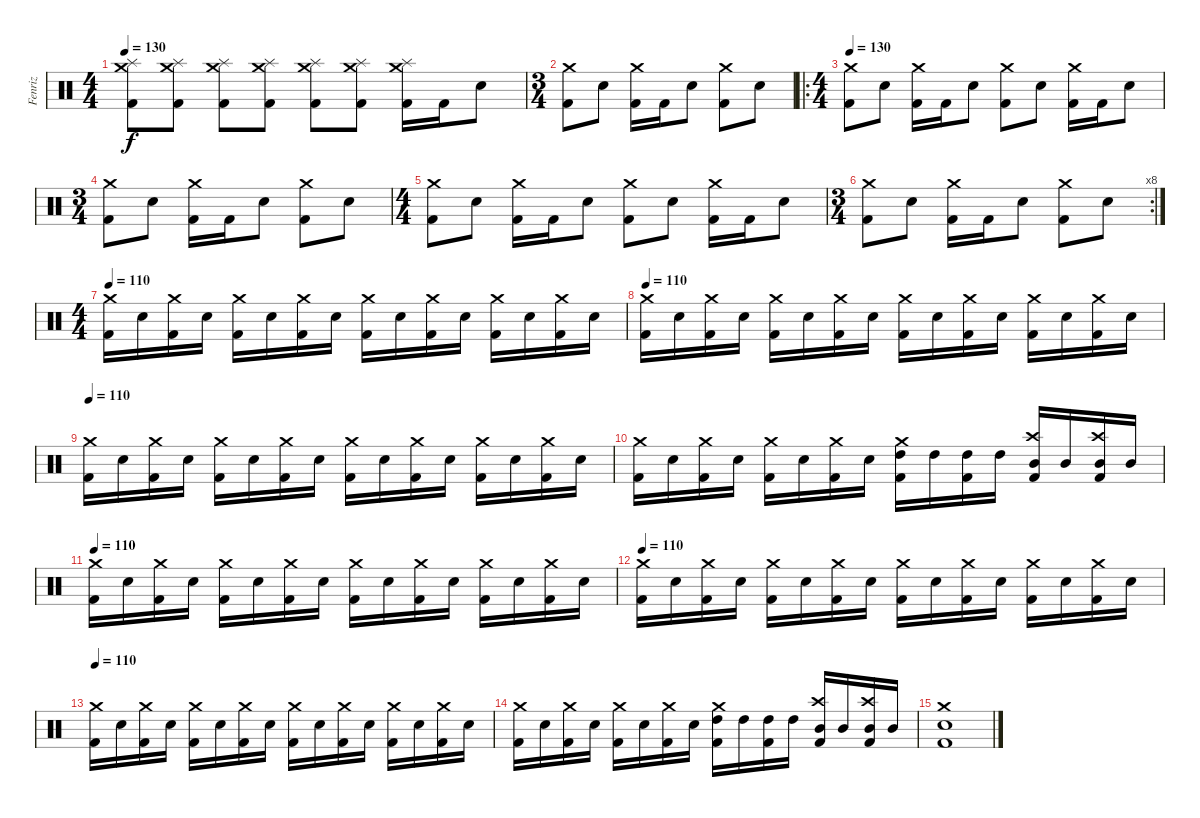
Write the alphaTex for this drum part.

\track ("Fenriz" "Fenriz") {instrument percussion}
\staff {score}
\articulation defaults
\ts (4 4)
\tempo 130
\clef neutral
\ks c
("Crash medium (hit)" "Splash (hit)" "Kick (hit) 2").8{dy f} ("Crash medium (hit)" "Splash (hit)" "Kick (hit) 2").8 ("Crash medium (hit)" "Splash (hit)" "Kick (hit) 2").8 ("Crash medium (hit)" "Splash (hit)" "Kick (hit) 2").8 ("Crash medium (hit)" "Splash (hit)" "Kick (hit) 2").8 ("Crash medium (hit)" "Splash (hit)" "Kick (hit) 2").8 ("Crash medium (hit)" "Splash (hit)" "Kick (hit) 2").16 "Kick (hit) 2".16 "Electric Snare (hit)".8 |
\ts (3 4)
("Crash medium (hit)" "Kick (hit) 2").8 "Electric Snare (hit)".8 ("Crash medium (hit)" "Kick (hit) 2").16 "Kick (hit) 2".16 "Electric Snare (hit)".8 ("Crash medium (hit)" "Kick (hit) 2").8 "Electric Snare (hit)".8 |
\ro
\ts (4 4)
\tempo 130
("Crash medium (hit)" "Kick (hit) 2").8 "Electric Snare (hit)".8 ("Crash medium (hit)" "Kick (hit) 2").16 "Kick (hit) 2".16 "Electric Snare (hit)".8 ("Crash medium (hit)" "Kick (hit) 2").8 "Electric Snare (hit)".8 ("Crash medium (hit)" "Kick (hit) 2").16 "Kick (hit) 2".16 "Electric Snare (hit)".8 |
\ts (3 4)
("Crash medium (hit)" "Kick (hit) 2").8 "Electric Snare (hit)".8 ("Crash medium (hit)" "Kick (hit) 2").16 "Kick (hit) 2".16 "Electric Snare (hit)".8 ("Crash medium (hit)" "Kick (hit) 2").8 "Electric Snare (hit)".8 |
\ts (4 4)
("Crash medium (hit)" "Kick (hit) 2").8 "Electric Snare (hit)".8 ("Crash medium (hit)" "Kick (hit) 2").16 "Kick (hit) 2".16 "Electric Snare (hit)".8 ("Crash medium (hit)" "Kick (hit) 2").8 "Electric Snare (hit)".8 ("Crash medium (hit)" "Kick (hit) 2").16 "Kick (hit) 2".16 "Electric Snare (hit)".8 |
\rc 8
\ts (3 4)
("Crash medium (hit)" "Kick (hit) 2").8 "Electric Snare (hit)".8 ("Crash medium (hit)" "Kick (hit) 2").16 "Kick (hit) 2".16 "Electric Snare (hit)".8 ("Crash medium (hit)" "Kick (hit) 2").8 "Electric Snare (hit)".8 |
\ts (4 4)
\tempo 110
("Crash medium (hit)" "Kick (hit) 2").16{volume 13} "Electric Snare (hit)".16 ("Crash medium (hit)" "Kick (hit) 2").16 "Electric Snare (hit)".16 ("Crash medium (hit)" "Kick (hit) 2").16 "Electric Snare (hit)".16 ("Crash medium (hit)" "Kick (hit) 2").16 "Electric Snare (hit)".16 ("Crash medium (hit)" "Kick (hit) 2").16 "Electric Snare (hit)".16 ("Crash medium (hit)" "Kick (hit) 2").16 "Electric Snare (hit)".16 ("Crash medium (hit)" "Kick (hit) 2").16 "Electric Snare (hit)".16 ("Crash medium (hit)" "Kick (hit) 2").16 "Electric Snare (hit)".16 |
\tempo 110
("Crash medium (hit)" "Kick (hit) 2").16{volume 13} "Electric Snare (hit)".16 ("Crash medium (hit)" "Kick (hit) 2").16 "Electric Snare (hit)".16 ("Crash medium (hit)" "Kick (hit) 2").16 "Electric Snare (hit)".16 ("Crash medium (hit)" "Kick (hit) 2").16 "Electric Snare (hit)".16 ("Crash medium (hit)" "Kick (hit) 2").16 "Electric Snare (hit)".16 ("Crash medium (hit)" "Kick (hit) 2").16 "Electric Snare (hit)".16 ("Crash medium (hit)" "Kick (hit) 2").16 "Electric Snare (hit)".16 ("Crash medium (hit)" "Kick (hit) 2").16 "Electric Snare (hit)".16 |
\tempo 110
("Crash medium (hit)" "Kick (hit) 2").16{volume 13} "Electric Snare (hit)".16 ("Crash medium (hit)" "Kick (hit) 2").16 "Electric Snare (hit)".16 ("Crash medium (hit)" "Kick (hit) 2").16 "Electric Snare (hit)".16 ("Crash medium (hit)" "Kick (hit) 2").16 "Electric Snare (hit)".16 ("Crash medium (hit)" "Kick (hit) 2").16 "Electric Snare (hit)".16 ("Crash medium (hit)" "Kick (hit) 2").16 "Electric Snare (hit)".16 ("Crash medium (hit)" "Kick (hit) 2").16 "Electric Snare (hit)".16 ("Crash medium (hit)" "Kick (hit) 2").16 "Electric Snare (hit)".16 |
("Crash medium (hit)" "Kick (hit) 2").16 "Electric Snare (hit)".16 ("Crash medium (hit)" "Kick (hit) 2").16 "Electric Snare (hit)".16 ("Crash medium (hit)" "Kick (hit) 2").16 "Electric Snare (hit)".16 ("Crash medium (hit)" "Kick (hit) 2").16 "Electric Snare (hit)".16 ("Crash medium (hit)" "High Tom (hit)" "Kick (hit) 2").16 "High Tom (hit)".16 ("High Tom (hit)" "Kick (hit) 2").16 "High Tom (hit)".16 ("Crash high (hit)" "Mid Tom (hit)" "Kick (hit) 2").16 "Mid Tom (hit)".16 ("Crash high (hit)" "Mid Tom (hit)" "Kick (hit) 2").16 "Mid Tom (hit)".16 |
\tempo 110
("Crash medium (hit)" "Kick (hit) 2").16{volume 13} "Electric Snare (hit)".16 ("Crash medium (hit)" "Kick (hit) 2").16 "Electric Snare (hit)".16 ("Crash medium (hit)" "Kick (hit) 2").16 "Electric Snare (hit)".16 ("Crash medium (hit)" "Kick (hit) 2").16 "Electric Snare (hit)".16 ("Crash medium (hit)" "Kick (hit) 2").16 "Electric Snare (hit)".16 ("Crash medium (hit)" "Kick (hit) 2").16 "Electric Snare (hit)".16 ("Crash medium (hit)" "Kick (hit) 2").16 "Electric Snare (hit)".16 ("Crash medium (hit)" "Kick (hit) 2").16 "Electric Snare (hit)".16 |
\tempo 110
("Crash medium (hit)" "Kick (hit) 2").16{volume 13} "Electric Snare (hit)".16 ("Crash medium (hit)" "Kick (hit) 2").16 "Electric Snare (hit)".16 ("Crash medium (hit)" "Kick (hit) 2").16 "Electric Snare (hit)".16 ("Crash medium (hit)" "Kick (hit) 2").16 "Electric Snare (hit)".16 ("Crash medium (hit)" "Kick (hit) 2").16 "Electric Snare (hit)".16 ("Crash medium (hit)" "Kick (hit) 2").16 "Electric Snare (hit)".16 ("Crash medium (hit)" "Kick (hit) 2").16 "Electric Snare (hit)".16 ("Crash medium (hit)" "Kick (hit) 2").16 "Electric Snare (hit)".16 |
\tempo 110
("Crash medium (hit)" "Kick (hit) 2").16{volume 13} "Electric Snare (hit)".16 ("Crash medium (hit)" "Kick (hit) 2").16 "Electric Snare (hit)".16 ("Crash medium (hit)" "Kick (hit) 2").16 "Electric Snare (hit)".16 ("Crash medium (hit)" "Kick (hit) 2").16 "Electric Snare (hit)".16 ("Crash medium (hit)" "Kick (hit) 2").16 "Electric Snare (hit)".16 ("Crash medium (hit)" "Kick (hit) 2").16 "Electric Snare (hit)".16 ("Crash medium (hit)" "Kick (hit) 2").16 "Electric Snare (hit)".16 ("Crash medium (hit)" "Kick (hit) 2").16 "Electric Snare (hit)".16 |
("Crash medium (hit)" "Kick (hit) 2").16 "Electric Snare (hit)".16 ("Crash medium (hit)" "Kick (hit) 2").16 "Electric Snare (hit)".16 ("Crash medium (hit)" "Kick (hit) 2").16 "Electric Snare (hit)".16 ("Crash medium (hit)" "Kick (hit) 2").16 "Electric Snare (hit)".16 ("Crash medium (hit)" "High Tom (hit)" "Kick (hit) 2").16 "High Tom (hit)".16 ("High Tom (hit)" "Kick (hit) 2").16 "High Tom (hit)".16 ("Crash high (hit)" "Mid Tom (hit)" "Kick (hit) 2").16 "Mid Tom (hit)".16 ("Crash high (hit)" "Mid Tom (hit)" "Kick (hit) 2").16 "Mid Tom (hit)".16 |
("Crash medium (hit)" "Electric Snare (hit)" "Kick (hit) 2").1
